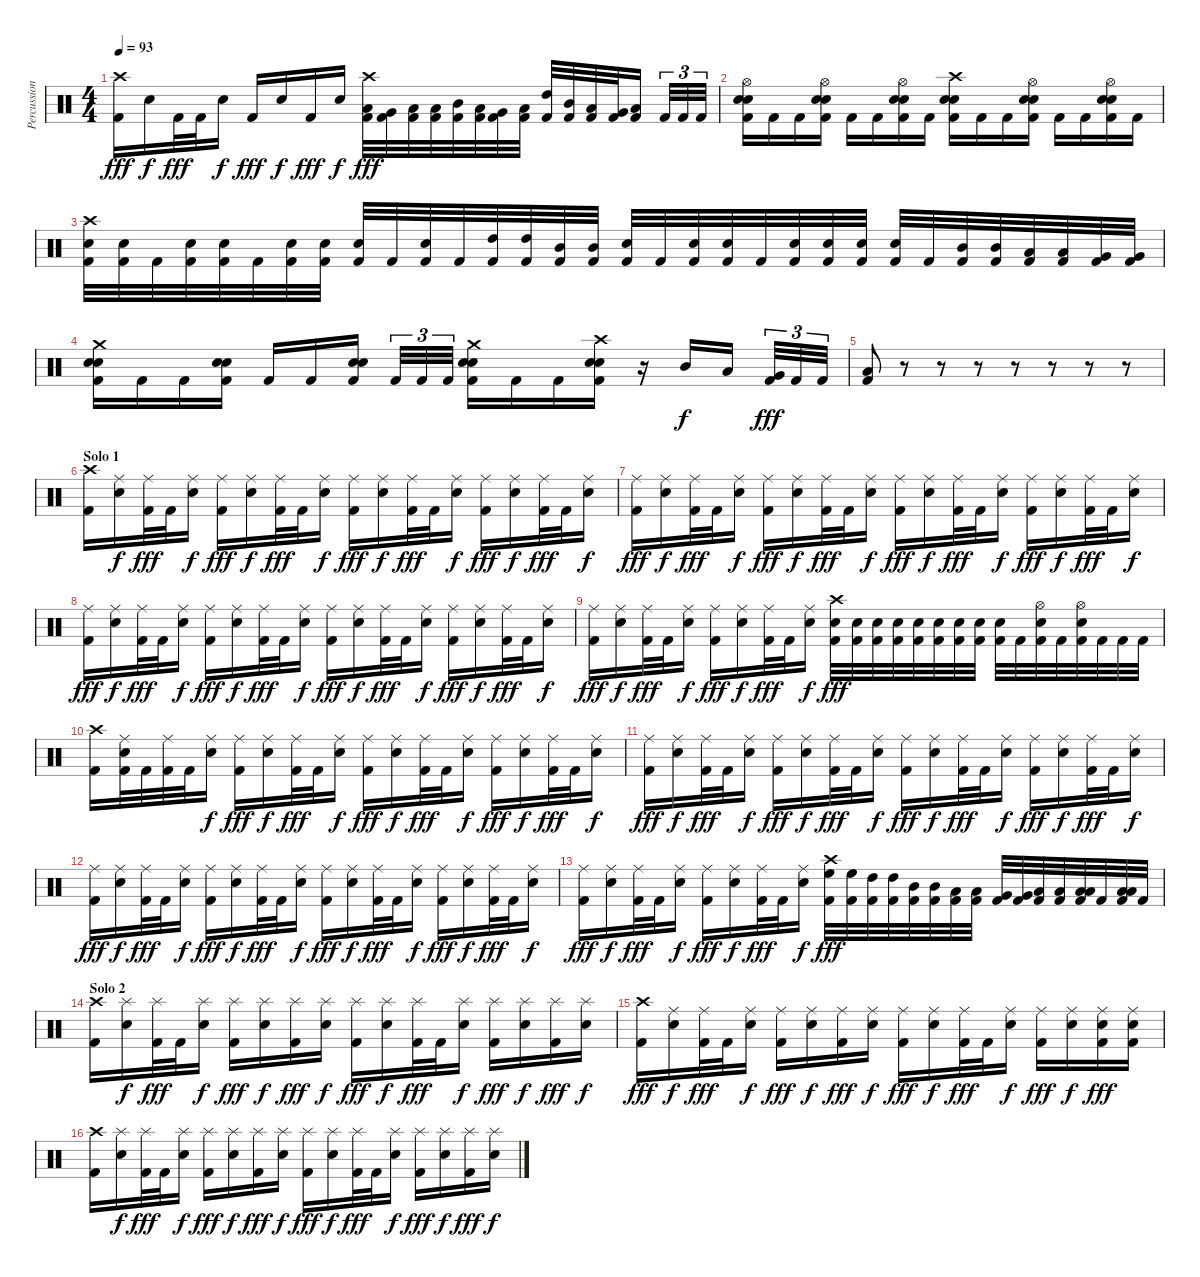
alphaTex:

\track ("Percussion" "Percussion") {instrument percussion}
\staff {score}
\articulation defaults
\ts (4 4)
\tempo 93
\clef neutral
\ks c
("Crash high (hit)" "Kick (hit) 2").16{dy fff} "Snare (hit) 2".16{dy f} "Kick (hit) 2".32{dy fff} "Kick (hit) 2".32 "Snare (hit) 2".16{dy f} "Kick (hit) 2".16{dy fff} "Snare (hit) 2".16{dy f} "Kick (hit) 2".16{dy fff} "Snare (hit) 2".16{dy f} ("Crash high (hit)" "Low Tom (hit)" "Kick (hit) 2").32{dy fff} ("Very Low Tom (hit)" "Kick (hit) 2").32 ("Low Floor Tom (hit)" "Kick (hit) 2").32 ("Low Floor Tom (hit)" "Kick (hit) 2").32 ("Mid Tom (hit)" "Kick (hit) 2").32 ("Low Tom (hit)" "Kick (hit) 2").32 ("Very Low Tom (hit)" "Kick (hit) 2").32 ("Low Floor Tom (hit)" "Kick (hit) 2").32 ("High Tom (hit)" "Kick (hit) 2").32 ("Mid Tom (hit)" "Kick (hit) 2").32 ("Low Tom (hit)" "Kick (hit) 2").32 ("Very Low Tom (hit)" "Kick (hit) 2").32 ("Low Tom (hit)" "Kick (hit) 2").16 "Kick (hit) 2".32{tu (3 2)} "Kick (hit) 2".32{tu (3 2)} "Kick (hit) 2".32{tu (3 2)} |
\section ("" "")
("Hi-Hat (open)" "Snare (hit) 2" "Snare (hit) 2" "Kick (hit) 2").16 "Kick (hit) 2".16 "Kick (hit) 2".16 ("Hi-Hat (open)" "Snare (hit) 2" "Snare (hit) 2" "Kick (hit) 2").16 "Kick (hit) 2".16 "Kick (hit) 2".16 ("Hi-Hat (open)" "Snare (hit) 2" "Snare (hit) 2" "Kick (hit) 2").16 "Kick (hit) 2".16 ("Crash high (hit)" "Snare (hit) 2" "Snare (hit) 2" "Kick (hit) 2").16 "Kick (hit) 2".16 "Kick (hit) 2".16 ("Hi-Hat (open)" "Snare (hit) 2" "Snare (hit) 2" "Kick (hit) 2").16 "Kick (hit) 2".16 "Kick (hit) 2".16 ("Hi-Hat (open)" "Snare (hit) 2" "Snare (hit) 2" "Kick (hit) 2").16 "Kick (hit) 2".16 |
("Crash high (hit)" "Snare (hit) 2" "Kick (hit) 2").32 ("Snare (hit) 2" "Kick (hit) 2").32 "Kick (hit) 2".32 ("Snare (hit) 2" "Kick (hit) 2").32 ("Snare (hit) 2" "Kick (hit) 2").32 "Kick (hit) 2".32 ("Snare (hit) 2" "Kick (hit) 2").32 ("Snare (hit) 2" "Kick (hit) 2").32 ("Snare (hit) 2" "Kick (hit) 2").32 "Kick (hit) 2".32 ("Snare (hit) 2" "Kick (hit) 2").32 "Kick (hit) 2".32 ("High Tom (hit)" "Kick (hit) 2").32 ("High Tom (hit)" "Kick (hit) 2").32 ("Mid Tom (hit)" "Kick (hit) 2").32 ("Mid Tom (hit)" "Kick (hit) 2").32 ("Snare (hit) 2" "Kick (hit) 2").32 "Kick (hit) 2".32 ("Snare (hit) 2" "Kick (hit) 2").32 ("Snare (hit) 2" "Kick (hit) 2").32 "Kick (hit) 2".32 ("Snare (hit) 2" "Kick (hit) 2").32 ("Snare (hit) 2" "Kick (hit) 2").32 ("Snare (hit) 2" "Kick (hit) 2").32 ("Snare (hit) 2" "Kick (hit) 2").32 "Kick (hit) 2".32 ("Mid Tom (hit)" "Kick (hit) 2").32 ("Mid Tom (hit)" "Kick (hit) 2").32 ("Low Tom (hit)" "Kick (hit) 2").32 ("Low Tom (hit)" "Kick (hit) 2").32 ("Very Low Tom (hit)" "Kick (hit) 2").32 ("Very Low Tom (hit)" "Kick (hit) 2").32 |
("Crash medium (hit)" "Snare (hit) 2" "Snare (hit) 2" "Kick (hit) 2").16 "Kick (hit) 2".16 "Kick (hit) 2".16 ("Snare (hit) 2" "Snare (hit) 2" "Kick (hit) 2").16 "Kick (hit) 2".16 "Kick (hit) 2".16 ("Snare (hit) 2" "Snare (hit) 2" "Kick (hit) 2").16 "Kick (hit) 2".32{tu (3 2)} "Kick (hit) 2".32{tu (3 2)} "Kick (hit) 2".32{tu (3 2)} ("Crash medium (hit)" "Snare (hit) 2" "Snare (hit) 2" "Kick (hit) 2").16 "Kick (hit) 2".16 "Kick (hit) 2".16 ("Crash high (hit)" "Snare (hit) 2" "Snare (hit) 2" "Kick (hit) 2").16 r.16 "Mid Tom (hit)".16{dy f} "Low Tom (hit)".16 ("Very Low Tom (hit)" "Kick (hit) 2").32{tu (3 2) dy fff} "Kick (hit) 2".32{tu (3 2)} "Kick (hit) 2".32{tu (3 2)} |
("Low Tom (hit)" "Kick (hit) 2").8 r.8 r.8 r.8 r.8 r.8 r.8 r.8 |
\section ("" "Solo 1")
("Crash high (hit)" "Kick (hit) 2").16 ("Ride (middle)" "Snare (hit) 2").16{dy f} ("Ride (middle)" "Kick (hit) 2").32{dy fff} "Kick (hit) 2".32 ("Ride (middle)" "Snare (hit) 2").16{dy f} ("Ride (middle)" "Kick (hit) 2").16{dy fff} ("Ride (middle)" "Snare (hit) 2").16{dy f} ("Ride (middle)" "Kick (hit) 2").32{dy fff} "Kick (hit) 2".32 ("Ride (middle)" "Snare (hit) 2").16{dy f} ("Ride (middle)" "Kick (hit) 2").16{dy fff} ("Ride (middle)" "Snare (hit) 2").16{dy f} ("Ride (middle)" "Kick (hit) 2").32{dy fff} "Kick (hit) 2".32 ("Ride (middle)" "Snare (hit) 2").16{dy f} ("Ride (middle)" "Kick (hit) 2").16{dy fff} ("Ride (middle)" "Snare (hit) 2").16{dy f} ("Ride (middle)" "Kick (hit) 2").32{dy fff} "Kick (hit) 2".32 ("Ride (middle)" "Snare (hit) 2").16{dy f} |
("Ride (middle)" "Kick (hit) 2").16{dy fff} ("Ride (middle)" "Snare (hit) 2").16{dy f} ("Ride (middle)" "Kick (hit) 2").32{dy fff} "Kick (hit) 2".32 ("Ride (middle)" "Snare (hit) 2").16{dy f} ("Ride (middle)" "Kick (hit) 2").16{dy fff} ("Ride (middle)" "Snare (hit) 2").16{dy f} ("Ride (middle)" "Kick (hit) 2").32{dy fff} "Kick (hit) 2".32 ("Ride (middle)" "Snare (hit) 2").16{dy f} ("Ride (middle)" "Kick (hit) 2").16{dy fff} ("Ride (middle)" "Snare (hit) 2").16{dy f} ("Ride (middle)" "Kick (hit) 2").32{dy fff} "Kick (hit) 2".32 ("Ride (middle)" "Snare (hit) 2").16{dy f} ("Ride (middle)" "Kick (hit) 2").16{dy fff} ("Ride (middle)" "Snare (hit) 2").16{dy f} ("Ride (middle)" "Kick (hit) 2").32{dy fff} "Kick (hit) 2".32 ("Ride (middle)" "Snare (hit) 2").16{dy f} |
("Ride (middle)" "Kick (hit) 2").16{dy fff} ("Ride (middle)" "Snare (hit) 2").16{dy f} ("Ride (middle)" "Kick (hit) 2").32{dy fff} "Kick (hit) 2".32 ("Ride (middle)" "Snare (hit) 2").16{dy f} ("Ride (middle)" "Kick (hit) 2").16{dy fff} ("Ride (middle)" "Snare (hit) 2").16{dy f} ("Ride (middle)" "Kick (hit) 2").32{dy fff} "Kick (hit) 2".32 ("Ride (middle)" "Snare (hit) 2").16{dy f} ("Ride (middle)" "Kick (hit) 2").16{dy fff} ("Ride (middle)" "Snare (hit) 2").16{dy f} ("Ride (middle)" "Kick (hit) 2").32{dy fff} "Kick (hit) 2".32 ("Ride (middle)" "Snare (hit) 2").16{dy f} ("Ride (middle)" "Kick (hit) 2").16{dy fff} ("Ride (middle)" "Snare (hit) 2").16{dy f} ("Ride (middle)" "Kick (hit) 2").32{dy fff} "Kick (hit) 2".32 ("Ride (middle)" "Snare (hit) 2").16{dy f} |
("Ride (middle)" "Kick (hit) 2").16{dy fff} ("Ride (middle)" "Snare (hit) 2").16{dy f} ("Ride (middle)" "Kick (hit) 2").32{dy fff} "Kick (hit) 2".32 ("Ride (middle)" "Snare (hit) 2").16{dy f} ("Ride (middle)" "Kick (hit) 2").16{dy fff} ("Ride (middle)" "Snare (hit) 2").16{dy f} ("Ride (middle)" "Kick (hit) 2").32{dy fff} "Kick (hit) 2".32 ("Ride (middle)" "Snare (hit) 2").16{dy f} ("Crash high (hit)" "Snare (hit) 2" "Kick (hit) 2").32{dy fff} ("Snare (hit) 2" "Kick (hit) 2").32 ("Snare (hit) 2" "Kick (hit) 2").32 ("Snare (hit) 2" "Kick (hit) 2").32 ("Snare (hit) 2" "Kick (hit) 2").32 ("Snare (hit) 2" "Kick (hit) 2").32 ("Snare (hit) 2" "Kick (hit) 2").32 ("Snare (hit) 2" "Kick (hit) 2").32 ("Snare (hit) 2" "Kick (hit) 2").32 "Kick (hit) 2".32 ("Hi-Hat (open)" "Snare (hit) 2" "Kick (hit) 2").32 "Kick (hit) 2".32 ("Hi-Hat (open)" "Snare (hit) 2" "Kick (hit) 2").32 "Kick (hit) 2".32 "Kick (hit) 2".32 "Kick (hit) 2".32 |
("Crash high (hit)" "Kick (hit) 2").16 ("Ride (middle)" "Snare (hit) 2" "Kick (hit) 2").32 "Kick (hit) 2".32 ("Ride (middle)" "Kick (hit) 2").32 "Kick (hit) 2".32 ("Ride (middle)" "Snare (hit) 2").16{dy f} ("Ride (middle)" "Kick (hit) 2").16{dy fff} ("Ride (middle)" "Snare (hit) 2").16{dy f} ("Ride (middle)" "Kick (hit) 2").32{dy fff} "Kick (hit) 2".32 ("Ride (middle)" "Snare (hit) 2").16{dy f} ("Ride (middle)" "Kick (hit) 2").16{dy fff} ("Ride (middle)" "Snare (hit) 2").16{dy f} ("Ride (middle)" "Kick (hit) 2").32{dy fff} "Kick (hit) 2".32 ("Ride (middle)" "Snare (hit) 2").16{dy f} ("Ride (middle)" "Kick (hit) 2").16{dy fff} ("Ride (middle)" "Snare (hit) 2").16{dy f} ("Ride (middle)" "Kick (hit) 2").32{dy fff} "Kick (hit) 2".32 ("Ride (middle)" "Snare (hit) 2").16{dy f} |
("Ride (middle)" "Kick (hit) 2").16{dy fff} ("Ride (middle)" "Snare (hit) 2").16{dy f} ("Ride (middle)" "Kick (hit) 2").32{dy fff} "Kick (hit) 2".32 ("Ride (middle)" "Snare (hit) 2").16{dy f} ("Ride (middle)" "Kick (hit) 2").16{dy fff} ("Ride (middle)" "Snare (hit) 2").16{dy f} ("Ride (middle)" "Kick (hit) 2").32{dy fff} "Kick (hit) 2".32 ("Ride (middle)" "Snare (hit) 2").16{dy f} ("Ride (middle)" "Kick (hit) 2").16{dy fff} ("Ride (middle)" "Snare (hit) 2").16{dy f} ("Ride (middle)" "Kick (hit) 2").32{dy fff} "Kick (hit) 2".32 ("Ride (middle)" "Snare (hit) 2").16{dy f} ("Ride (middle)" "Kick (hit) 2").16{dy fff} ("Ride (middle)" "Snare (hit) 2").16{dy f} ("Ride (middle)" "Kick (hit) 2").32{dy fff} "Kick (hit) 2".32 ("Ride (middle)" "Snare (hit) 2").16{dy f} |
("Ride (middle)" "Kick (hit) 2").16{dy fff} ("Ride (middle)" "Snare (hit) 2").16{dy f} ("Ride (middle)" "Kick (hit) 2").32{dy fff} "Kick (hit) 2".32 ("Ride (middle)" "Snare (hit) 2").16{dy f} ("Ride (middle)" "Kick (hit) 2").16{dy fff} ("Ride (middle)" "Snare (hit) 2").16{dy f} ("Ride (middle)" "Kick (hit) 2").32{dy fff} "Kick (hit) 2".32 ("Ride (middle)" "Snare (hit) 2").16{dy f} ("Ride (middle)" "Kick (hit) 2").16{dy fff} ("Ride (middle)" "Snare (hit) 2").16{dy f} ("Ride (middle)" "Kick (hit) 2").32{dy fff} "Kick (hit) 2".32 ("Ride (middle)" "Snare (hit) 2").16{dy f} ("Ride (middle)" "Kick (hit) 2").16{dy fff} ("Ride (middle)" "Snare (hit) 2").16{dy f} ("Ride (middle)" "Kick (hit) 2").32{dy fff} "Kick (hit) 2".32 ("Ride (middle)" "Snare (hit) 2").16{dy f} |
("Ride (middle)" "Kick (hit) 2").16{dy fff} ("Ride (middle)" "Snare (hit) 2").16{dy f} ("Ride (middle)" "Kick (hit) 2").32{dy fff} "Kick (hit) 2".32 ("Ride (middle)" "Snare (hit) 2").16{dy f} ("Ride (middle)" "Kick (hit) 2").16{dy fff} ("Ride (middle)" "Snare (hit) 2").16{dy f} ("Ride (middle)" "Kick (hit) 2").32{dy fff} "Kick (hit) 2".32 ("Ride (middle)" "Snare (hit) 2").16{dy f} ("Crash high (hit)" "High Floor Tom (hit)" "Kick (hit) 2").32{dy fff} ("High Floor Tom (hit)" "Kick (hit) 2").32 ("High Tom (hit)" "Kick (hit) 2").32 ("High Tom (hit)" "Kick (hit) 2").32 ("Mid Tom (hit)" "Kick (hit) 2").32 ("Mid Tom (hit)" "Kick (hit) 2").32 ("Low Tom (hit)" "Kick (hit) 2").32 ("Low Tom (hit)" "Kick (hit) 2").32 ("Very Low Tom (hit)" "Kick (hit) 2").32 ("Very Low Tom (hit)" "Kick (hit) 2").32 ("Low Floor Tom (hit)" "Kick (hit) 2").32 ("Low Floor Tom (hit)" "Kick (hit) 2").32 ("Low Tom (hit)" "Low Floor Tom (hit)" "Kick (hit) 2").32 "Kick (hit) 2".32 ("Low Tom (hit)" "Low Floor Tom (hit)" "Kick (hit) 2").32 "Kick (hit) 2".32 |
\section ("" "Solo 2")
("Crash high (hit)" "Kick (hit) 2").16 ("Splash (hit)" "Snare (hit) 2").16{dy f} ("Splash (hit)" "Kick (hit) 2").32{dy fff} "Kick (hit) 2".32 ("Splash (hit)" "Snare (hit) 2").16{dy f} ("Splash (hit)" "Kick (hit) 2").16{dy fff} ("Splash (hit)" "Snare (hit) 2").16{dy f} ("Splash (hit)" "Kick (hit) 2").16{dy fff} ("Splash (hit)" "Snare (hit) 2").16{dy f} ("Splash (hit)" "Kick (hit) 2").16{dy fff} ("Splash (hit)" "Snare (hit) 2").16{dy f} ("Splash (hit)" "Kick (hit) 2").32{dy fff} "Kick (hit) 2".32 ("Splash (hit)" "Snare (hit) 2").16{dy f} ("Splash (hit)" "Kick (hit) 2").16{dy fff} ("Splash (hit)" "Snare (hit) 2").16{dy f} ("Splash (hit)" "Kick (hit) 2").16{dy fff} ("Splash (hit)" "Snare (hit) 2").16{dy f} |
("Crash high (hit)" "Kick (hit) 2").16{dy fff} ("Ride (middle)" "Snare (hit) 2").16{dy f} ("Ride (middle)" "Kick (hit) 2").32{dy fff} "Kick (hit) 2".32 ("Ride (middle)" "Snare (hit) 2").16{dy f} ("Ride (middle)" "Kick (hit) 2").16{dy fff} ("Ride (middle)" "Snare (hit) 2").16{dy f} ("Ride (middle)" "Kick (hit) 2").16{dy fff} ("Ride (middle)" "Snare (hit) 2").16{dy f} ("Ride (middle)" "Kick (hit) 2").16{dy fff} ("Ride (middle)" "Snare (hit) 2").16{dy f} ("Ride (middle)" "Kick (hit) 2").32{dy fff} "Kick (hit) 2".32 ("Ride (middle)" "Snare (hit) 2").16{dy f} ("Ride (middle)" "Kick (hit) 2").16{dy fff} ("Ride (middle)" "Snare (hit) 2").16{dy f} ("Ride (middle)" "Snare (hit) 2" "Kick (hit) 2").16{dy fff} ("Ride (middle)" "Snare (hit) 2" "Kick (hit) 2").16 |
("Crash high (hit)" "Kick (hit) 2").16 ("Splash (hit)" "Snare (hit) 2").16{dy f} ("Splash (hit)" "Kick (hit) 2").32{dy fff} "Kick (hit) 2".32 ("Splash (hit)" "Snare (hit) 2").16{dy f} ("Splash (hit)" "Kick (hit) 2").16{dy fff} ("Splash (hit)" "Snare (hit) 2").16{dy f} ("Splash (hit)" "Kick (hit) 2").16{dy fff} ("Splash (hit)" "Snare (hit) 2").16{dy f} ("Splash (hit)" "Kick (hit) 2").16{dy fff} ("Splash (hit)" "Snare (hit) 2").16{dy f} ("Splash (hit)" "Kick (hit) 2").32{dy fff} "Kick (hit) 2".32 ("Splash (hit)" "Snare (hit) 2").16{dy f} ("Splash (hit)" "Kick (hit) 2").16{dy fff} ("Splash (hit)" "Snare (hit) 2").16{dy f} ("Splash (hit)" "Kick (hit) 2").16{dy fff} ("Splash (hit)" "Snare (hit) 2").16{dy f}
